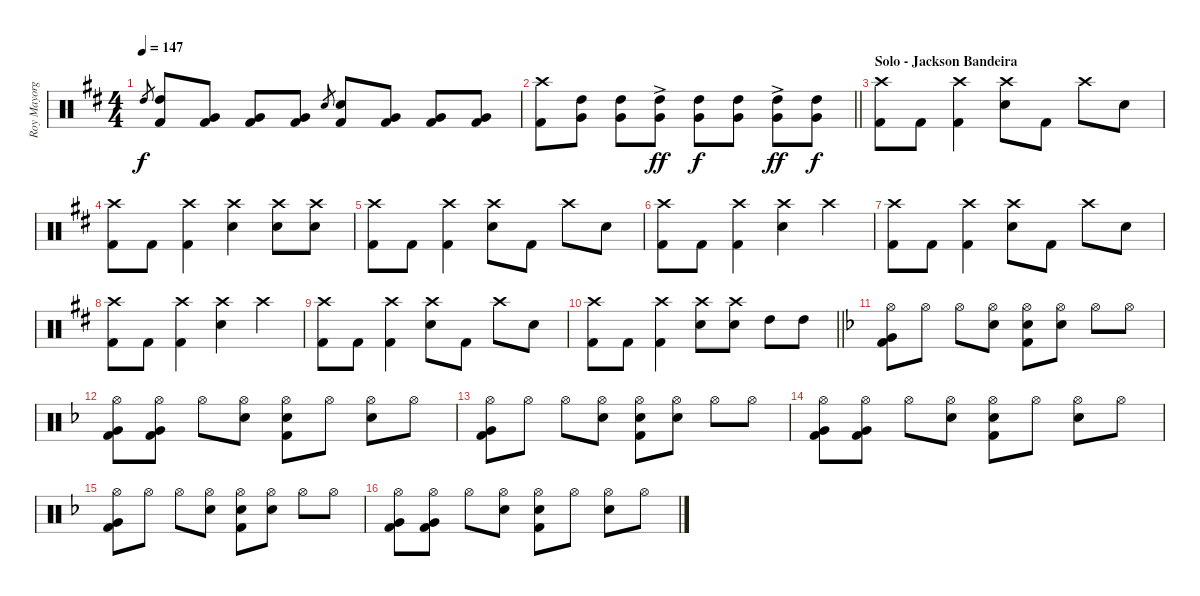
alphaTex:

\track ("Roy Mayorga (Drums)" "Roy Mayorg") {instrument percussion}
\staff {score}
\articulation defaults
\ts (4 4)
\tempo 147
\clef neutral
\ks d "High Tom (hit)".8{gr dy f}
("High Tom (hit)" "Kick (hit) 2").8 ("Very Low Tom (hit)" "Kick (hit) 2").8 ("Very Low Tom (hit)" "Kick (hit) 2").8 ("Very Low Tom (hit)" "Kick (hit) 2").8 "Snare (hit) 2".8{gr} ("Snare (hit) 2" "Kick (hit) 2").8 ("Very Low Tom (hit)" "Kick (hit) 2").8 ("Very Low Tom (hit)" "Kick (hit) 2").8 ("Very Low Tom (hit)" "Kick (hit) 2").8 |
\barLineRight lightlight
("Crash high (hit)" "Kick (hit) 2").8 ("High Tom (hit)" "Very Low Tom (hit)").8 ("High Tom (hit)" "Very Low Tom (hit)").8 ("High Tom (hit)"{ac} "Very Low Tom (hit)"{ac}).8{dy ff} ("High Tom (hit)" "Very Low Tom (hit)").8{dy f} ("High Tom (hit)" "Very Low Tom (hit)").8 ("High Tom (hit)"{ac} "Very Low Tom (hit)"{ac}).8{dy ff} ("High Tom (hit)" "Very Low Tom (hit)").8{dy f} |
\section ("" "Solo - Jackson Bandeira")
("Crash high (hit)" "Kick (hit) 2").8 "Kick (hit) 2".8 ("Crash high (hit)" "Kick (hit) 2").4 ("Crash high (hit)" "Snare (hit) 2").8 "Kick (hit) 2".8 "Crash high (hit)".8 "Snare (hit) 2".8 |
("Crash high (hit)" "Kick (hit) 2").8 "Kick (hit) 2".8 ("Crash high (hit)" "Kick (hit) 2").4 ("Crash high (hit)" "Snare (hit) 2").4 ("Crash high (hit)" "Snare (hit) 2").8 ("Crash high (hit)" "Snare (hit) 2").8 |
("Crash high (hit)" "Kick (hit) 2").8 "Kick (hit) 2".8 ("Crash high (hit)" "Kick (hit) 2").4 ("Crash high (hit)" "Snare (hit) 2").8 "Kick (hit) 2".8 "Crash high (hit)".8 "Snare (hit) 2".8 |
("Crash high (hit)" "Kick (hit) 2").8 "Kick (hit) 2".8 ("Crash high (hit)" "Kick (hit) 2").4 ("Crash high (hit)" "Snare (hit) 2").4 "Crash high (hit)".4 |
("Crash high (hit)" "Kick (hit) 2").8 "Kick (hit) 2".8 ("Crash high (hit)" "Kick (hit) 2").4 ("Crash high (hit)" "Snare (hit) 2").8 "Kick (hit) 2".8 "Crash high (hit)".8 "Snare (hit) 2".8 |
("Crash high (hit)" "Kick (hit) 2").8 "Kick (hit) 2".8 ("Crash high (hit)" "Kick (hit) 2").4 ("Crash high (hit)" "Snare (hit) 2").4 "Crash high (hit)".4 |
("Crash high (hit)" "Kick (hit) 2").8 "Kick (hit) 2".8 ("Crash high (hit)" "Kick (hit) 2").4 ("Crash high (hit)" "Snare (hit) 2").8 "Kick (hit) 2".8 "Crash high (hit)".8 "Snare (hit) 2".8 |
\barLineRight lightlight
("Crash high (hit)" "Kick (hit) 2").8 "Kick (hit) 2".8 ("Crash high (hit)" "Kick (hit) 2").4 ("Crash high (hit)" "Snare (hit) 2").8 ("Crash high (hit)" "Snare (hit) 2").8 "High Tom (hit)".8 "High Tom (hit)".8 |
\ks f
("Hi-Hat (open)" "Very Low Tom (hit)" "Kick (hit) 2").8 "Hi-Hat (open)".8 "Hi-Hat (open)".8 ("Hi-Hat (open)" "Snare (hit) 2").8 ("Hi-Hat (open)" "Snare (hit) 2" "Kick (hit) 2").8 ("Hi-Hat (open)" "Snare (hit) 2").8 "Hi-Hat (open)".8 "Hi-Hat (open)".8 |
("Hi-Hat (open)" "Very Low Tom (hit)" "Kick (hit) 2").8 ("Hi-Hat (open)" "Very Low Tom (hit)" "Kick (hit) 2").8 "Hi-Hat (open)".8 ("Hi-Hat (open)" "Snare (hit) 2").8 ("Hi-Hat (open)" "Snare (hit) 2" "Kick (hit) 2").8 "Hi-Hat (open)".8 ("Hi-Hat (open)" "Snare (hit) 2").8 "Hi-Hat (open)".8 |
("Hi-Hat (open)" "Very Low Tom (hit)" "Kick (hit) 2").8 "Hi-Hat (open)".8 "Hi-Hat (open)".8 ("Hi-Hat (open)" "Snare (hit) 2").8 ("Hi-Hat (open)" "Snare (hit) 2" "Kick (hit) 2").8 ("Hi-Hat (open)" "Snare (hit) 2").8 "Hi-Hat (open)".8 "Hi-Hat (open)".8 |
("Hi-Hat (open)" "Very Low Tom (hit)" "Kick (hit) 2").8 ("Hi-Hat (open)" "Very Low Tom (hit)" "Kick (hit) 2").8 "Hi-Hat (open)".8 ("Hi-Hat (open)" "Snare (hit) 2").8 ("Hi-Hat (open)" "Snare (hit) 2" "Kick (hit) 2").8 "Hi-Hat (open)".8 ("Hi-Hat (open)" "Snare (hit) 2").8 "Hi-Hat (open)".8 |
("Hi-Hat (open)" "Very Low Tom (hit)" "Kick (hit) 2").8 "Hi-Hat (open)".8 "Hi-Hat (open)".8 ("Hi-Hat (open)" "Snare (hit) 2").8 ("Hi-Hat (open)" "Snare (hit) 2" "Kick (hit) 2").8 ("Hi-Hat (open)" "Snare (hit) 2").8 "Hi-Hat (open)".8 "Hi-Hat (open)".8 |
("Hi-Hat (open)" "Very Low Tom (hit)" "Kick (hit) 2").8 ("Hi-Hat (open)" "Very Low Tom (hit)" "Kick (hit) 2").8 "Hi-Hat (open)".8 ("Hi-Hat (open)" "Snare (hit) 2").8 ("Hi-Hat (open)" "Snare (hit) 2" "Kick (hit) 2").8 "Hi-Hat (open)".8 ("Hi-Hat (open)" "Snare (hit) 2").8 "Hi-Hat (open)".8
